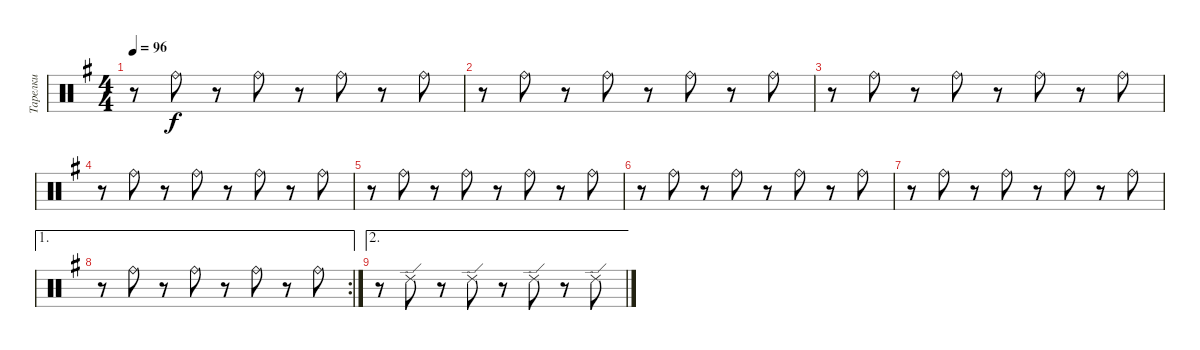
\track ("Тарелки" "Тарелки") {instrument percussion}
\staff {score}
\articulation defaults
\ts (4 4)
\tempo 96
\clef neutral
\ks eminor
r.8{dy f} "Ride (bell)".8 r.8 "Ride (bell)".8 r.8 "Ride (bell)".8 r.8 "Ride (bell)".8 |
r.8 "Ride (bell)".8 r.8 "Ride (bell)".8 r.8 "Ride (bell)".8 r.8 "Ride (bell)".8 |
r.8 "Ride (bell)".8 r.8 "Ride (bell)".8 r.8 "Ride (bell)".8 r.8 "Ride (bell)".8 |
r.8 "Ride (bell)".8 r.8 "Ride (bell)".8 r.8 "Ride (bell)".8 r.8 "Ride (bell)".8 |
r.8 "Ride (bell)".8 r.8 "Ride (bell)".8 r.8 "Ride (bell)".8 r.8 "Ride (bell)".8 |
r.8 "Ride (bell)".8 r.8 "Ride (bell)".8 r.8 "Ride (bell)".8 r.8 "Ride (bell)".8 |
r.8 "Ride (bell)".8 r.8 "Ride (bell)".8 r.8 "Ride (bell)".8 r.8 "Ride (bell)".8 |
\ae 1
\rc 2
r.8 "Ride (bell)".8 r.8 "Ride (bell)".8 r.8 "Ride (bell)".8 r.8 "Ride (bell)".8 |
\ae 2
r.8 "Ride (edge) 2".8 r.8 "Ride (edge) 2".8 r.8 "Ride (edge) 2".8 r.8 "Ride (edge) 2".8
